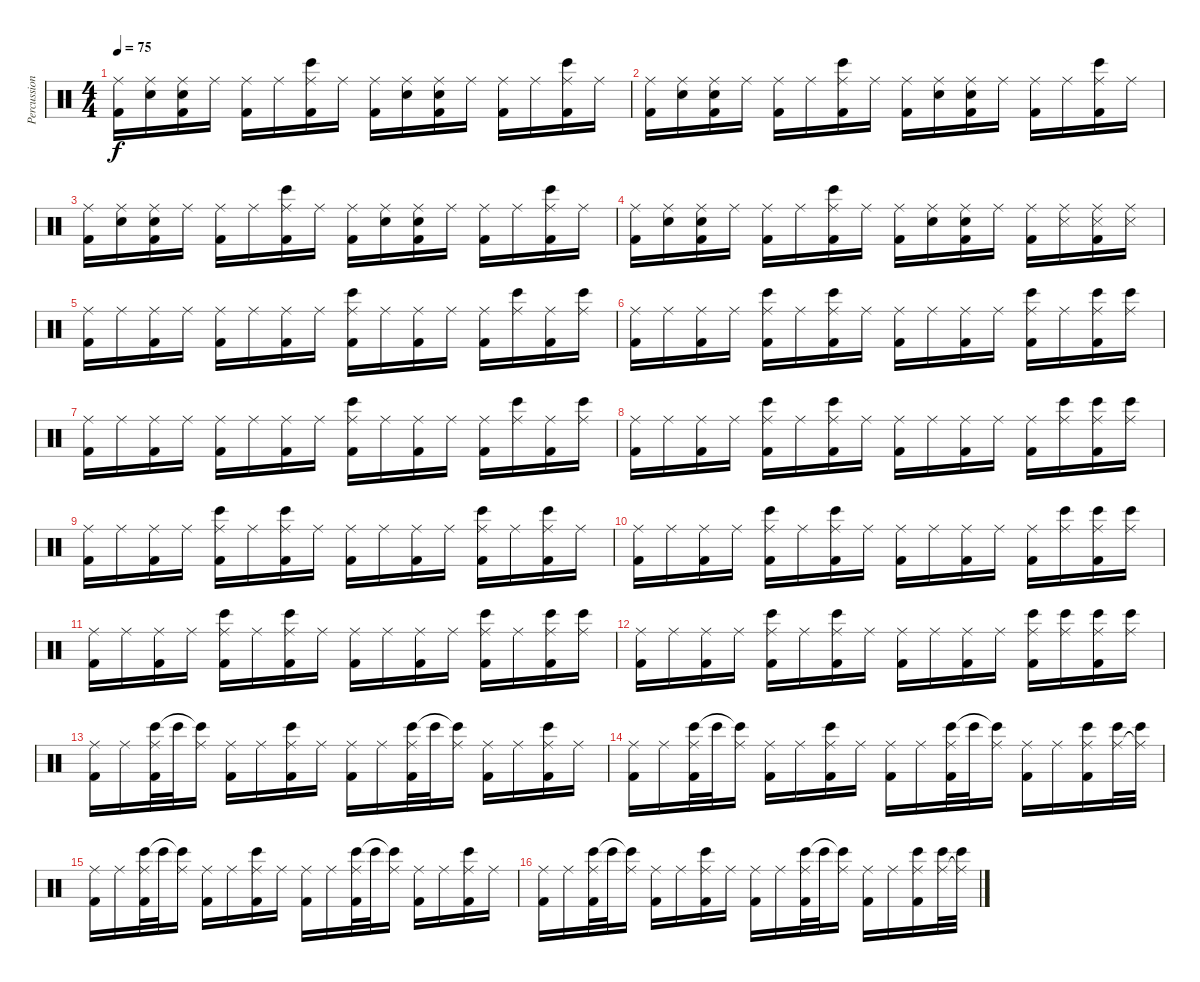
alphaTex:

\track ("Percussion" "Percussion") {instrument percussion}
\staff {score}
\articulation defaults
\ts (4 4)
\tempo 75
\clef neutral
\ks c
("Ride (middle)" "Kick (hit) 2").16{dy f} ("Ride (middle)" "Snare (hit) 2").16 ("Ride (middle)" "Snare (hit) 2" "Kick (hit) 2").16 "Ride (middle)".16 ("Ride (middle)" "Kick (hit) 2").16 "Ride (middle)".16 ("Ride (middle)" "Bongo High (hit)" "Kick (hit) 2").16 "Ride (middle)".16 ("Ride (middle)" "Kick (hit) 2").16 ("Ride (middle)" "Snare (hit) 2").16 ("Ride (middle)" "Snare (hit) 2" "Kick (hit) 2").16 "Ride (middle)".16 ("Ride (middle)" "Kick (hit) 2").16 "Ride (middle)".16 ("Ride (middle)" "Bongo High (hit)" "Kick (hit) 2").16 "Ride (middle)".16 |
("Ride (middle)" "Kick (hit) 2").16 ("Ride (middle)" "Snare (hit) 2").16 ("Ride (middle)" "Snare (hit) 2" "Kick (hit) 2").16 "Ride (middle)".16 ("Ride (middle)" "Kick (hit) 2").16 "Ride (middle)".16 ("Ride (middle)" "Bongo High (hit)" "Kick (hit) 2").16 "Ride (middle)".16 ("Ride (middle)" "Kick (hit) 2").16 ("Ride (middle)" "Snare (hit) 2").16 ("Ride (middle)" "Snare (hit) 2" "Kick (hit) 2").16 "Ride (middle)".16 ("Ride (middle)" "Kick (hit) 2").16 "Ride (middle)".16 ("Ride (middle)" "Bongo High (hit)" "Kick (hit) 2").16 "Ride (middle)".16 |
("Ride (middle)" "Kick (hit) 2").16 ("Ride (middle)" "Snare (hit) 2").16 ("Ride (middle)" "Snare (hit) 2" "Kick (hit) 2").16 "Ride (middle)".16 ("Ride (middle)" "Kick (hit) 2").16 "Ride (middle)".16 ("Ride (middle)" "Bongo High (hit)" "Kick (hit) 2").16 "Ride (middle)".16 ("Ride (middle)" "Kick (hit) 2").16 ("Ride (middle)" "Snare (hit) 2").16 ("Ride (middle)" "Snare (hit) 2" "Kick (hit) 2").16 "Ride (middle)".16 ("Ride (middle)" "Kick (hit) 2").16 "Ride (middle)".16 ("Ride (middle)" "Bongo High (hit)" "Kick (hit) 2").16 "Ride (middle)".16 |
("Ride (middle)" "Kick (hit) 2").16 ("Ride (middle)" "Snare (hit) 2").16 ("Ride (middle)" "Snare (hit) 2" "Kick (hit) 2").16 "Ride (middle)".16 ("Ride (middle)" "Kick (hit) 2").16 "Ride (middle)".16 ("Ride (middle)" "Bongo High (hit)" "Kick (hit) 2").16 "Ride (middle)".16 ("Ride (middle)" "Kick (hit) 2").16 ("Ride (middle)" "Snare (hit) 2").16 ("Ride (middle)" "Snare (hit) 2" "Kick (hit) 2").16 "Ride (middle)".16 ("Ride (middle)" "Kick (hit) 2").16 ("Ride (middle)" "Snare (side stick) 3").16 ("Ride (middle)" "Snare (side stick) 3" "Kick (hit) 2").16 ("Ride (middle)" "Snare (side stick) 3").16 |
("Ride (middle)" "Kick (hit) 2").16 "Ride (middle)".16 ("Ride (middle)" "Kick (hit) 2").16 "Ride (middle)".16 ("Ride (middle)" "Kick (hit) 2").16 "Ride (middle)".16 ("Ride (middle)" "Kick (hit) 2").16 "Ride (middle)".16 ("Ride (middle)" "Bongo High (hit)" "Kick (hit) 2").16 "Ride (middle)".16 ("Ride (middle)" "Kick (hit) 2").16 "Ride (middle)".16 ("Ride (middle)" "Kick (hit) 2").16 ("Ride (middle)" "Bongo High (hit)").16 ("Ride (middle)" "Kick (hit) 2").16 ("Ride (middle)" "Bongo High (hit)").16 |
("Ride (middle)" "Kick (hit) 2").16 "Ride (middle)".16 ("Ride (middle)" "Kick (hit) 2").16 "Ride (middle)".16 ("Ride (middle)" "Bongo High (hit)" "Kick (hit) 2").16 "Ride (middle)".16 ("Ride (middle)" "Bongo High (hit)" "Kick (hit) 2").16 "Ride (middle)".16 ("Ride (middle)" "Kick (hit) 2").16 "Ride (middle)".16 ("Ride (middle)" "Kick (hit) 2").16 "Ride (middle)".16 ("Ride (middle)" "Bongo High (hit)" "Kick (hit) 2").16 "Ride (middle)".16 ("Ride (middle)" "Bongo High (hit)" "Kick (hit) 2").16 ("Ride (middle)" "Bongo High (hit)").16 |
("Ride (middle)" "Kick (hit) 2").16 "Ride (middle)".16 ("Ride (middle)" "Kick (hit) 2").16 "Ride (middle)".16 ("Ride (middle)" "Kick (hit) 2").16 "Ride (middle)".16 ("Ride (middle)" "Kick (hit) 2").16 "Ride (middle)".16 ("Ride (middle)" "Bongo High (hit)" "Kick (hit) 2").16 "Ride (middle)".16 ("Ride (middle)" "Kick (hit) 2").16 "Ride (middle)".16 ("Ride (middle)" "Kick (hit) 2").16 ("Ride (middle)" "Bongo High (hit)").16 ("Ride (middle)" "Kick (hit) 2").16 ("Ride (middle)" "Bongo High (hit)").16 |
("Ride (middle)" "Kick (hit) 2").16 "Ride (middle)".16 ("Ride (middle)" "Kick (hit) 2").16 "Ride (middle)".16 ("Ride (middle)" "Bongo High (hit)" "Kick (hit) 2").16 "Ride (middle)".16 ("Ride (middle)" "Bongo High (hit)" "Kick (hit) 2").16 "Ride (middle)".16 ("Ride (middle)" "Kick (hit) 2").16 "Ride (middle)".16 ("Ride (middle)" "Kick (hit) 2").16 "Ride (middle)".16 ("Ride (middle)" "Kick (hit) 2").16 ("Ride (middle)" "Bongo High (hit)").16 ("Ride (middle)" "Bongo High (hit)" "Kick (hit) 2").16 ("Ride (middle)" "Bongo High (hit)").16 |
("Ride (middle)" "Kick (hit) 2").16 "Ride (middle)".16 ("Ride (middle)" "Kick (hit) 2").16 "Ride (middle)".16 ("Ride (middle)" "Bongo High (hit)" "Kick (hit) 2").16 "Ride (middle)".16 ("Ride (middle)" "Bongo High (hit)" "Kick (hit) 2").16 "Ride (middle)".16 ("Ride (middle)" "Kick (hit) 2").16 "Ride (middle)".16 ("Ride (middle)" "Kick (hit) 2").16 "Ride (middle)".16 ("Ride (middle)" "Bongo High (hit)" "Kick (hit) 2").16 "Ride (middle)".16 ("Ride (middle)" "Bongo High (hit)" "Kick (hit) 2").16 "Ride (middle)".16 |
("Ride (middle)" "Kick (hit) 2").16 "Ride (middle)".16 ("Ride (middle)" "Kick (hit) 2").16 "Ride (middle)".16 ("Ride (middle)" "Bongo High (hit)" "Kick (hit) 2").16 "Ride (middle)".16 ("Ride (middle)" "Bongo High (hit)" "Kick (hit) 2").16 "Ride (middle)".16 ("Ride (middle)" "Kick (hit) 2").16 "Ride (middle)".16 ("Ride (middle)" "Kick (hit) 2").16 "Ride (middle)".16 ("Ride (middle)" "Kick (hit) 2").16 ("Ride (middle)" "Bongo High (hit)").16 ("Ride (middle)" "Bongo High (hit)" "Kick (hit) 2").16 ("Ride (middle)" "Bongo High (hit)").16 |
("Ride (middle)" "Kick (hit) 2").16 "Ride (middle)".16 ("Ride (middle)" "Kick (hit) 2").16 "Ride (middle)".16 ("Ride (middle)" "Bongo High (hit)" "Kick (hit) 2").16 "Ride (middle)".16 ("Ride (middle)" "Bongo High (hit)" "Kick (hit) 2").16 "Ride (middle)".16 ("Ride (middle)" "Kick (hit) 2").16 "Ride (middle)".16 ("Ride (middle)" "Kick (hit) 2").16 "Ride (middle)".16 ("Ride (middle)" "Bongo High (hit)" "Kick (hit) 2").16 "Ride (middle)".16 ("Ride (middle)" "Bongo High (hit)" "Kick (hit) 2").16 ("Ride (middle)" "Bongo High (hit)").16 |
("Ride (middle)" "Kick (hit) 2").16 "Ride (middle)".16 ("Ride (middle)" "Kick (hit) 2").16 "Ride (middle)".16 ("Ride (middle)" "Bongo High (hit)" "Kick (hit) 2").16 "Ride (middle)".16 ("Ride (middle)" "Bongo High (hit)" "Kick (hit) 2").16 "Ride (middle)".16 ("Ride (middle)" "Kick (hit) 2").16 "Ride (middle)".16 ("Ride (middle)" "Kick (hit) 2").16 "Ride (middle)".16 ("Ride (middle)" "Bongo High (hit)" "Kick (hit) 2").16 ("Ride (middle)" "Bongo High (hit)").16 ("Ride (middle)" "Bongo High (hit)" "Kick (hit) 2").16 ("Ride (middle)" "Bongo High (hit)").16 |
("Ride (middle)" "Kick (hit) 2").16 "Ride (middle)".16 ("Ride (middle)" "Bongo High (hit)" "Kick (hit) 2").32 "Bongo High (hit)".32 ("Ride (middle)" "Bongo High (hit)"{t}).16 ("Ride (middle)" "Kick (hit) 2").16 "Ride (middle)".16 ("Ride (middle)" "Bongo High (hit)" "Kick (hit) 2").16 "Ride (middle)".16 ("Ride (middle)" "Kick (hit) 2").16 "Ride (middle)".16 ("Ride (middle)" "Bongo High (hit)" "Kick (hit) 2").32 "Bongo High (hit)".32 ("Ride (middle)" "Bongo High (hit)"{t}).16 ("Ride (middle)" "Kick (hit) 2").16 "Ride (middle)".16 ("Ride (middle)" "Bongo High (hit)" "Kick (hit) 2").16 "Ride (middle)".16 |
("Ride (middle)" "Kick (hit) 2").16 "Ride (middle)".16 ("Ride (middle)" "Bongo High (hit)" "Kick (hit) 2").32 "Bongo High (hit)".32 ("Ride (middle)" "Bongo High (hit)"{t}).16 ("Ride (middle)" "Kick (hit) 2").16 "Ride (middle)".16 ("Ride (middle)" "Bongo High (hit)" "Kick (hit) 2").16 "Ride (middle)".16 ("Ride (middle)" "Kick (hit) 2").16 "Ride (middle)".16 ("Ride (middle)" "Bongo High (hit)" "Kick (hit) 2").32 "Bongo High (hit)".32 ("Ride (middle)" "Bongo High (hit)"{t}).16 ("Ride (middle)" "Kick (hit) 2").16 "Ride (middle)".16 ("Ride (middle)" "Bongo High (hit)" "Kick (hit) 2").16 ("Ride (middle)" "Bongo High (hit)").32 ("Ride (middle)"{t} "Bongo High (hit)").32 |
("Ride (middle)" "Kick (hit) 2").16 "Ride (middle)".16 ("Ride (middle)" "Bongo High (hit)" "Kick (hit) 2").32 "Bongo High (hit)".32 ("Ride (middle)" "Bongo High (hit)"{t}).16 ("Ride (middle)" "Kick (hit) 2").16 "Ride (middle)".16 ("Ride (middle)" "Bongo High (hit)" "Kick (hit) 2").16 "Ride (middle)".16 ("Ride (middle)" "Kick (hit) 2").16 "Ride (middle)".16 ("Ride (middle)" "Bongo High (hit)" "Kick (hit) 2").32 "Bongo High (hit)".32 ("Ride (middle)" "Bongo High (hit)"{t}).16 ("Ride (middle)" "Kick (hit) 2").16 "Ride (middle)".16 ("Ride (middle)" "Bongo High (hit)" "Kick (hit) 2").16 "Ride (middle)".16 |
("Ride (middle)" "Kick (hit) 2").16 "Ride (middle)".16 ("Ride (middle)" "Bongo High (hit)" "Kick (hit) 2").32 "Bongo High (hit)".32 ("Ride (middle)" "Bongo High (hit)"{t}).16 ("Ride (middle)" "Kick (hit) 2").16 "Ride (middle)".16 ("Ride (middle)" "Bongo High (hit)" "Kick (hit) 2").16 "Ride (middle)".16 ("Ride (middle)" "Kick (hit) 2").16 "Ride (middle)".16 ("Ride (middle)" "Bongo High (hit)" "Kick (hit) 2").32 "Bongo High (hit)".32 ("Ride (middle)" "Bongo High (hit)"{t}).16 ("Ride (middle)" "Kick (hit) 2").16 "Ride (middle)".16 ("Ride (middle)" "Bongo High (hit)" "Kick (hit) 2").16 ("Ride (middle)" "Bongo High (hit)").32 ("Ride (middle)"{t} "Bongo High (hit)").32
